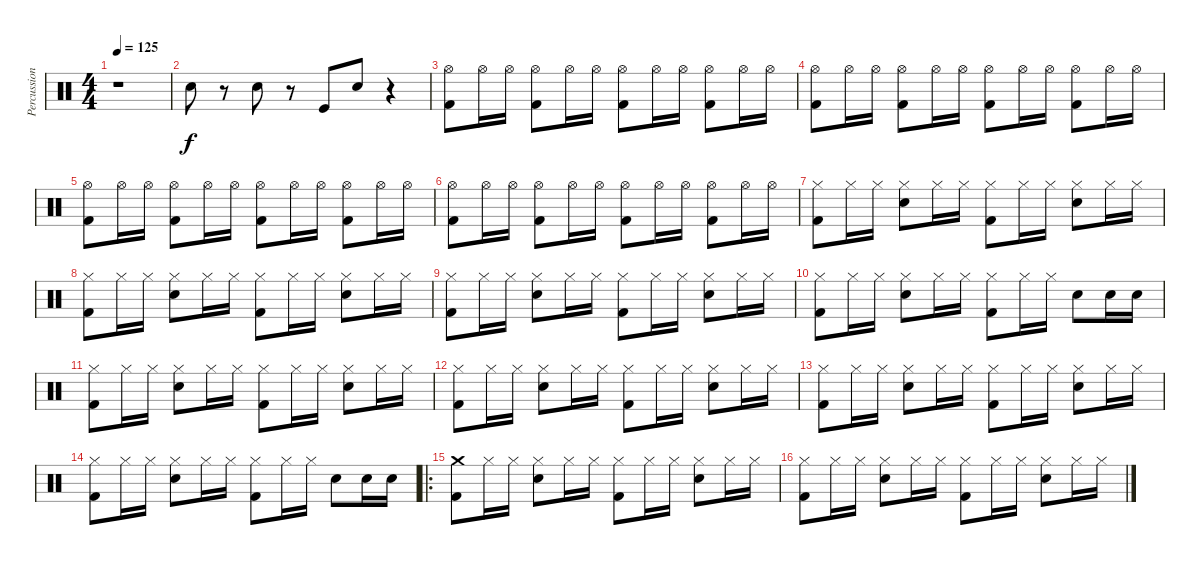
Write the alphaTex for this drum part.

\track ("Percussion" "Percussion") {instrument percussion}
\staff {score}
\articulation defaults
\ts (4 4)
\tempo 125
\clef neutral
\ks c
r.1{dy f} |
"Snare (hit) 2".8 r.8 "Snare (hit) 2".8 r.8 "Kick (hit)".8 "Snare (hit) 2".8 r.4 |
("Hi-Hat (open)" "Kick (hit) 2").8 "Hi-Hat (open)".16 "Hi-Hat (open)".16 ("Hi-Hat (open)" "Kick (hit) 2").8 "Hi-Hat (open)".16 "Hi-Hat (open)".16 ("Hi-Hat (open)" "Kick (hit) 2").8 "Hi-Hat (open)".16 "Hi-Hat (open)".16 ("Hi-Hat (open)" "Kick (hit) 2").8 "Hi-Hat (open)".16 "Hi-Hat (open)".16 |
("Hi-Hat (open)" "Kick (hit) 2").8 "Hi-Hat (open)".16 "Hi-Hat (open)".16 ("Hi-Hat (open)" "Kick (hit) 2").8 "Hi-Hat (open)".16 "Hi-Hat (open)".16 ("Hi-Hat (open)" "Kick (hit) 2").8 "Hi-Hat (open)".16 "Hi-Hat (open)".16 ("Hi-Hat (open)" "Kick (hit) 2").8 "Hi-Hat (open)".16 "Hi-Hat (open)".16 |
("Hi-Hat (open)" "Kick (hit) 2").8 "Hi-Hat (open)".16 "Hi-Hat (open)".16 ("Hi-Hat (open)" "Kick (hit) 2").8 "Hi-Hat (open)".16 "Hi-Hat (open)".16 ("Hi-Hat (open)" "Kick (hit) 2").8 "Hi-Hat (open)".16 "Hi-Hat (open)".16 ("Hi-Hat (open)" "Kick (hit) 2").8 "Hi-Hat (open)".16 "Hi-Hat (open)".16 |
("Hi-Hat (open)" "Kick (hit) 2").8 "Hi-Hat (open)".16 "Hi-Hat (open)".16 ("Hi-Hat (open)" "Kick (hit) 2").8 "Hi-Hat (open)".16 "Hi-Hat (open)".16 ("Hi-Hat (open)" "Kick (hit) 2").8 "Hi-Hat (open)".16 "Hi-Hat (open)".16 ("Hi-Hat (open)" "Kick (hit) 2").8 "Hi-Hat (open)".16 "Hi-Hat (open)".16 |
("Hi-Hat (closed)" "Kick (hit) 2").8 "Hi-Hat (closed)".16 "Hi-Hat (closed)".16 ("Hi-Hat (closed)" "Snare (hit) 2").8 "Hi-Hat (closed)".16 "Hi-Hat (closed)".16 ("Hi-Hat (closed)" "Kick (hit) 2").8 "Hi-Hat (closed)".16 "Hi-Hat (closed)".16 ("Hi-Hat (closed)" "Snare (hit) 2").8 "Hi-Hat (closed)".16 "Hi-Hat (closed)".16 |
("Hi-Hat (closed)" "Kick (hit) 2").8 "Hi-Hat (closed)".16 "Hi-Hat (closed)".16 ("Hi-Hat (closed)" "Snare (hit) 2").8 "Hi-Hat (closed)".16 "Hi-Hat (closed)".16 ("Hi-Hat (closed)" "Kick (hit) 2").8 "Hi-Hat (closed)".16 "Hi-Hat (closed)".16 ("Hi-Hat (closed)" "Snare (hit) 2").8 "Hi-Hat (closed)".16 "Hi-Hat (closed)".16 |
("Hi-Hat (closed)" "Kick (hit) 2").8 "Hi-Hat (closed)".16 "Hi-Hat (closed)".16 ("Hi-Hat (closed)" "Snare (hit) 2").8 "Hi-Hat (closed)".16 "Hi-Hat (closed)".16 ("Hi-Hat (closed)" "Kick (hit) 2").8 "Hi-Hat (closed)".16 "Hi-Hat (closed)".16 ("Hi-Hat (closed)" "Snare (hit) 2").8 "Hi-Hat (closed)".16 "Hi-Hat (closed)".16 |
("Hi-Hat (closed)" "Kick (hit) 2").8 "Hi-Hat (closed)".16 "Hi-Hat (closed)".16 ("Hi-Hat (closed)" "Snare (hit) 2").8 "Hi-Hat (closed)".16 "Hi-Hat (closed)".16 ("Hi-Hat (closed)" "Kick (hit) 2").8 "Hi-Hat (closed)".16 "Hi-Hat (closed)".16 "Snare (hit) 2".8 "Snare (hit) 2".16 "Snare (hit) 2".16 |
("Hi-Hat (closed)" "Kick (hit) 2").8 "Hi-Hat (closed)".16 "Hi-Hat (closed)".16 ("Hi-Hat (closed)" "Snare (hit) 2").8 "Hi-Hat (closed)".16 "Hi-Hat (closed)".16 ("Hi-Hat (closed)" "Kick (hit) 2").8 "Hi-Hat (closed)".16 "Hi-Hat (closed)".16 ("Hi-Hat (closed)" "Snare (hit) 2").8 "Hi-Hat (closed)".16 "Hi-Hat (closed)".16 |
("Hi-Hat (closed)" "Kick (hit) 2").8 "Hi-Hat (closed)".16 "Hi-Hat (closed)".16 ("Hi-Hat (closed)" "Snare (hit) 2").8 "Hi-Hat (closed)".16 "Hi-Hat (closed)".16 ("Hi-Hat (closed)" "Kick (hit) 2").8 "Hi-Hat (closed)".16 "Hi-Hat (closed)".16 ("Hi-Hat (closed)" "Snare (hit) 2").8 "Hi-Hat (closed)".16 "Hi-Hat (closed)".16 |
("Hi-Hat (closed)" "Kick (hit) 2").8 "Hi-Hat (closed)".16 "Hi-Hat (closed)".16 ("Hi-Hat (closed)" "Snare (hit) 2").8 "Hi-Hat (closed)".16 "Hi-Hat (closed)".16 ("Hi-Hat (closed)" "Kick (hit) 2").8 "Hi-Hat (closed)".16 "Hi-Hat (closed)".16 ("Hi-Hat (closed)" "Snare (hit) 2").8 "Hi-Hat (closed)".16 "Hi-Hat (closed)".16 |
("Hi-Hat (closed)" "Kick (hit) 2").8 "Hi-Hat (closed)".16 "Hi-Hat (closed)".16 ("Hi-Hat (closed)" "Snare (hit) 2").8 "Hi-Hat (closed)".16 "Hi-Hat (closed)".16 ("Hi-Hat (closed)" "Kick (hit) 2").8 "Hi-Hat (closed)".16 "Hi-Hat (closed)".16 "Snare (hit) 2".8 "Snare (hit) 2".16 "Snare (hit) 2".16 |
\ro
("Crash medium (hit)" "Kick (hit) 2").8 "Hi-Hat (closed)".16 "Hi-Hat (closed)".16 ("Hi-Hat (closed)" "Snare (hit) 2").8 "Hi-Hat (closed)".16 "Hi-Hat (closed)".16 ("Hi-Hat (closed)" "Kick (hit) 2").8 "Hi-Hat (closed)".16 "Hi-Hat (closed)".16 ("Hi-Hat (closed)" "Snare (hit) 2").8 "Hi-Hat (closed)".16 "Hi-Hat (closed)".16 |
("Hi-Hat (closed)" "Kick (hit) 2").8 "Hi-Hat (closed)".16 "Hi-Hat (closed)".16 ("Hi-Hat (closed)" "Snare (hit) 2").8 "Hi-Hat (closed)".16 "Hi-Hat (closed)".16 ("Hi-Hat (closed)" "Kick (hit) 2").8 "Hi-Hat (closed)".16 "Hi-Hat (closed)".16 ("Hi-Hat (closed)" "Snare (hit) 2").8 "Hi-Hat (closed)".16 "Hi-Hat (closed)".16
